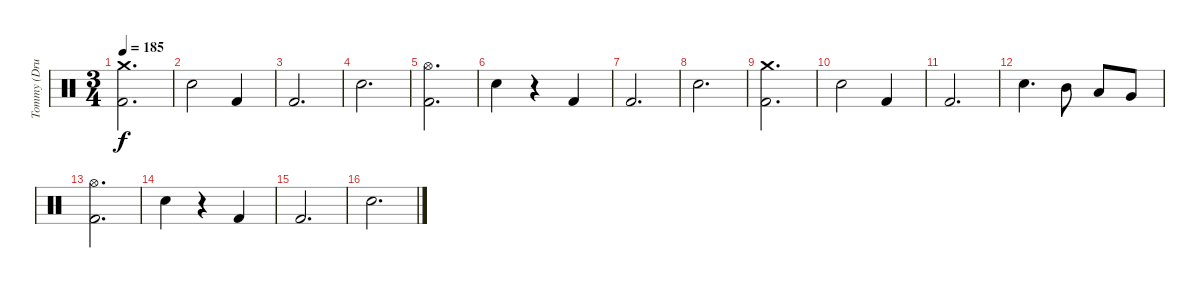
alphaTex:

\track ("Tommy (Drums)" "Tommy (Dru") {instrument percussion}
\staff {score}
\articulation defaults
\ts (3 4)
\tempo 185
\clef neutral
\ks c
("Crash medium (hit)" "Kick (hit) 2").2{d dy f} |
"Electric Snare (hit)".2 "Kick (hit) 2".4 |
"Kick (hit) 2".2{d} |
"Electric Snare (hit)".2{d} |
("Hi-Hat (open)" "Kick (hit) 2").2{d} |
"Electric Snare (hit)".4 r.4 "Kick (hit) 2".4 |
"Kick (hit) 2".2{d} |
"Electric Snare (hit)".2{d} |
("Crash medium (hit)" "Kick (hit) 2").2{d} |
"Electric Snare (hit)".2 "Kick (hit) 2".4 |
"Kick (hit) 2".2{d} |
"Electric Snare (hit)".4{d} "Mid Tom (hit)".8 "Low Tom (hit)".8 "Very Low Tom (hit)".8 |
("Hi-Hat (open)" "Kick (hit) 2").2{d} |
"Electric Snare (hit)".4 r.4 "Kick (hit) 2".4 |
"Kick (hit) 2".2{d} |
"Electric Snare (hit)".2{d}
